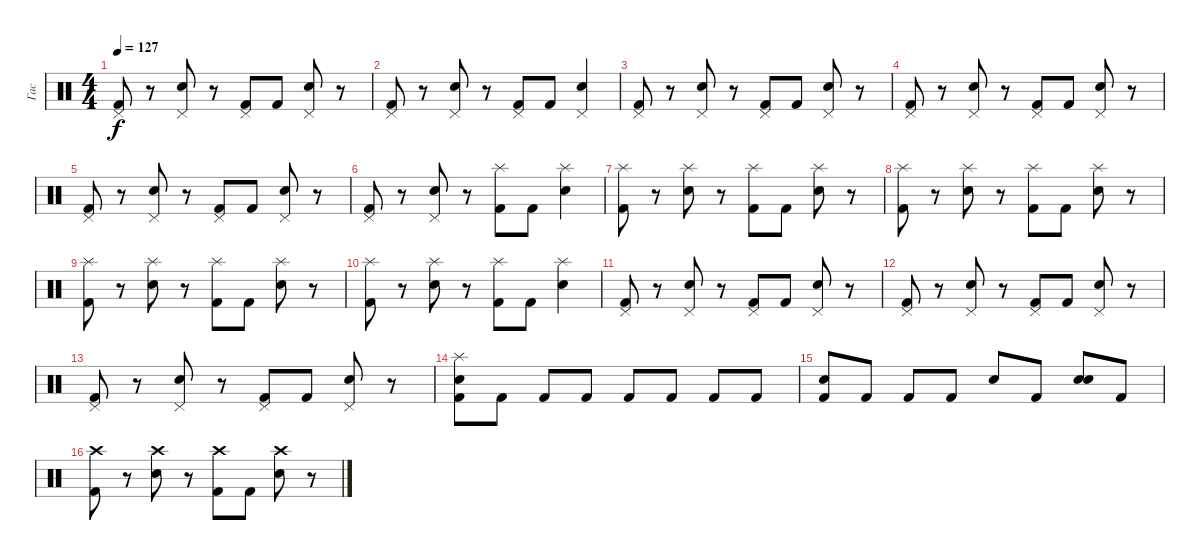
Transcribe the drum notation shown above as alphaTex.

\track ("Гас" "Гас") {instrument percussion}
\staff {score}
\articulation defaults
\ts (4 4)
\tempo 127
\clef neutral
\ks c
("Pedal Hi-Hat (hit)" "Kick (hit) 2").8{dy f} r.8 ("Pedal Hi-Hat (hit)" "Electric Snare (hit)").8 r.8 ("Pedal Hi-Hat (hit)" "Kick (hit) 2").8 "Kick (hit) 2".8 ("Pedal Hi-Hat (hit)" "Electric Snare (hit)").8 r.8 |
("Pedal Hi-Hat (hit)" "Kick (hit) 2").8 r.8 ("Pedal Hi-Hat (hit)" "Electric Snare (hit)").8 r.8 ("Pedal Hi-Hat (hit)" "Kick (hit) 2").8 "Kick (hit) 2".8 ("Pedal Hi-Hat (hit)" "Electric Snare (hit)").4 |
("Pedal Hi-Hat (hit)" "Kick (hit) 2").8 r.8 ("Pedal Hi-Hat (hit)" "Electric Snare (hit)").8 r.8 ("Pedal Hi-Hat (hit)" "Kick (hit) 2").8 "Kick (hit) 2".8 ("Pedal Hi-Hat (hit)" "Electric Snare (hit)").8 r.8 |
("Pedal Hi-Hat (hit)" "Kick (hit) 2").8 r.8 ("Pedal Hi-Hat (hit)" "Electric Snare (hit)").8 r.8 ("Pedal Hi-Hat (hit)" "Kick (hit) 2").8 "Kick (hit) 2".8 ("Pedal Hi-Hat (hit)" "Electric Snare (hit)").8 r.8 |
("Pedal Hi-Hat (hit)" "Kick (hit) 2").8 r.8 ("Pedal Hi-Hat (hit)" "Electric Snare (hit)").8 r.8 ("Pedal Hi-Hat (hit)" "Kick (hit) 2").8 "Kick (hit) 2".8 ("Pedal Hi-Hat (hit)" "Electric Snare (hit)").8 r.8 |
("Pedal Hi-Hat (hit)" "Kick (hit) 2").8 r.8 ("Pedal Hi-Hat (hit)" "Electric Snare (hit)").8 r.8 ("Splash (hit)" "Kick (hit) 2").8 "Kick (hit) 2".8 ("Splash (hit)" "Electric Snare (hit)").4 |
("Splash (hit)" "Kick (hit) 2").8 r.8 ("Splash (hit)" "Electric Snare (hit)").8 r.8 ("Splash (hit)" "Kick (hit) 2").8 "Kick (hit) 2".8 ("Splash (hit)" "Electric Snare (hit)").8 r.8 |
("Splash (hit)" "Kick (hit) 2").8 r.8 ("Splash (hit)" "Electric Snare (hit)").8 r.8 ("Splash (hit)" "Kick (hit) 2").8 "Kick (hit) 2".8 ("Splash (hit)" "Electric Snare (hit)").8 r.8 |
("Splash (hit)" "Kick (hit) 2").8 r.8 ("Splash (hit)" "Electric Snare (hit)").8 r.8 ("Splash (hit)" "Kick (hit) 2").8 "Kick (hit) 2".8 ("Splash (hit)" "Electric Snare (hit)").8 r.8 |
("Splash (hit)" "Kick (hit) 2").8 r.8 ("Splash (hit)" "Electric Snare (hit)").8 r.8 ("Splash (hit)" "Kick (hit) 2").8 "Kick (hit) 2".8 ("Splash (hit)" "Electric Snare (hit)").4 |
("Pedal Hi-Hat (hit)" "Kick (hit) 2").8 r.8 ("Pedal Hi-Hat (hit)" "Electric Snare (hit)").8 r.8 ("Pedal Hi-Hat (hit)" "Kick (hit) 2").8 "Kick (hit) 2".8 ("Pedal Hi-Hat (hit)" "Electric Snare (hit)").8 r.8 |
("Pedal Hi-Hat (hit)" "Kick (hit) 2").8 r.8 ("Pedal Hi-Hat (hit)" "Electric Snare (hit)").8 r.8 ("Pedal Hi-Hat (hit)" "Kick (hit) 2").8 "Kick (hit) 2".8 ("Pedal Hi-Hat (hit)" "Electric Snare (hit)").8 r.8 |
("Pedal Hi-Hat (hit)" "Kick (hit) 2").8 r.8 ("Pedal Hi-Hat (hit)" "Electric Snare (hit)").8 r.8 ("Pedal Hi-Hat (hit)" "Kick (hit) 2").8 "Kick (hit) 2".8 ("Pedal Hi-Hat (hit)" "Electric Snare (hit)").8 r.8 |
("Splash (hit)" "Electric Snare (hit)" "Kick (hit) 2").8 "Kick (hit) 2".8 "Kick (hit) 2".8 "Kick (hit) 2".8 "Kick (hit) 2".8 "Kick (hit) 2".8 "Kick (hit) 2".8 "Kick (hit) 2".8 |
("Electric Snare (hit)" "Kick (hit) 2").8 "Kick (hit) 2".8 "Kick (hit) 2".8 "Kick (hit) 2".8 "Electric Snare (hit)".8 "Kick (hit) 2".8 ("Electric Snare (hit)" "Snare (hit) 2").8 "Kick (hit) 2".8 |
("Crash high (hit)" "Kick (hit) 2").8 r.8 ("Crash high (hit)" "Electric Snare (hit)").8 r.8 ("Crash high (hit)" "Kick (hit) 2").8 "Kick (hit) 2".8 ("Crash high (hit)" "Electric Snare (hit)").8 r.8
